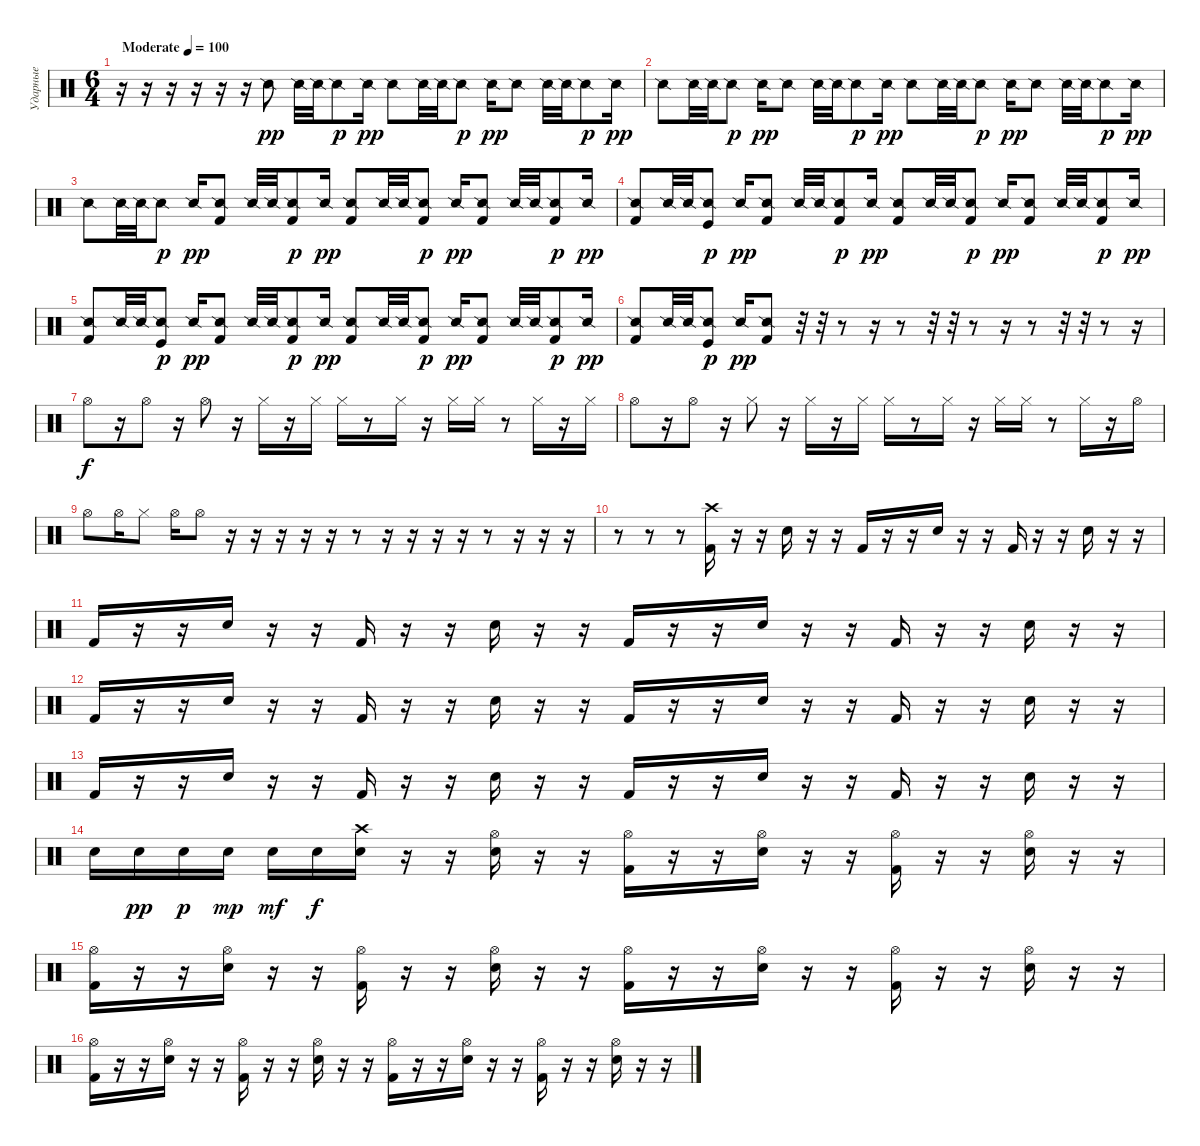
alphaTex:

\track ("Ударные" "Ударные") {instrument percussion}
\staff {score}
\articulation defaults
\ts (6 4)
\tempo (100 "Moderate")
\clef neutral
\ks c
r.16{dy pp} r.16 r.16 r.16 r.16 r.16 "Snare (side stick) 2".8 "Snare (side stick) 2".32 "Snare (side stick) 2".32 "Snare (side stick) 2".8{dy p} "Snare (side stick) 2".16{dy pp} "Snare (side stick) 2".8 "Snare (side stick) 2".32 "Snare (side stick) 2".32 "Snare (side stick) 2".8{dy p} "Snare (side stick) 2".16{dy pp} "Snare (side stick) 2".8 "Snare (side stick) 2".32 "Snare (side stick) 2".32 "Snare (side stick) 2".8{dy p} "Snare (side stick) 2".16{dy pp} |
"Snare (side stick) 2".8 "Snare (side stick) 2".32 "Snare (side stick) 2".32 "Snare (side stick) 2".8{dy p} "Snare (side stick) 2".16{dy pp} "Snare (side stick) 2".8 "Snare (side stick) 2".32 "Snare (side stick) 2".32 "Snare (side stick) 2".8{dy p} "Snare (side stick) 2".16{dy pp} "Snare (side stick) 2".8 "Snare (side stick) 2".32 "Snare (side stick) 2".32 "Snare (side stick) 2".8{dy p} "Snare (side stick) 2".16{dy pp} "Snare (side stick) 2".8 "Snare (side stick) 2".32 "Snare (side stick) 2".32 "Snare (side stick) 2".8{dy p} "Snare (side stick) 2".16{dy pp} |
"Snare (side stick) 2".8 "Snare (side stick) 2".32 "Snare (side stick) 2".32 "Snare (side stick) 2".8{dy p} "Snare (side stick) 2".16{dy pp} ("Snare (side stick) 2" "Kick (hit) 2").8 "Snare (side stick) 2".32 "Snare (side stick) 2".32 ("Snare (side stick) 2" "Kick (hit) 2").8{dy p} "Snare (side stick) 2".16{dy pp} ("Snare (side stick) 2" "Kick (hit) 2").8 "Snare (side stick) 2".32 "Snare (side stick) 2".32 ("Snare (side stick) 2" "Kick (hit) 2").8{dy p} "Snare (side stick) 2".16{dy pp} ("Snare (side stick) 2" "Kick (hit) 2").8 "Snare (side stick) 2".32 "Snare (side stick) 2".32 ("Snare (side stick) 2" "Kick (hit) 2").8{dy p} "Snare (side stick) 2".16{dy pp} |
("Snare (side stick) 2" "Kick (hit) 2").8 "Snare (side stick) 2".32 "Snare (side stick) 2".32 ("Snare (side stick) 2" "Kick (hit)").8{dy p} "Snare (side stick) 2".16{dy pp} ("Snare (side stick) 2" "Kick (hit) 2").8 "Snare (side stick) 2".32 "Snare (side stick) 2".32 ("Snare (side stick) 2" "Kick (hit) 2").8{dy p} "Snare (side stick) 2".16{dy pp} ("Snare (side stick) 2" "Kick (hit) 2").8 "Snare (side stick) 2".32 "Snare (side stick) 2".32 ("Snare (side stick) 2" "Kick (hit) 2").8{dy p} "Snare (side stick) 2".16{dy pp} ("Snare (side stick) 2" "Kick (hit) 2").8 "Snare (side stick) 2".32 "Snare (side stick) 2".32 ("Snare (side stick) 2" "Kick (hit) 2").8{dy p} "Snare (side stick) 2".16{dy pp} |
("Snare (side stick) 2" "Kick (hit) 2").8 "Snare (side stick) 2".32 "Snare (side stick) 2".32 ("Snare (side stick) 2" "Kick (hit)").8{dy p} "Snare (side stick) 2".16{dy pp} ("Snare (side stick) 2" "Kick (hit) 2").8 "Snare (side stick) 2".32 "Snare (side stick) 2".32 ("Snare (side stick) 2" "Kick (hit) 2").8{dy p} "Snare (side stick) 2".16{dy pp} ("Snare (side stick) 2" "Kick (hit) 2").8 "Snare (side stick) 2".32 "Snare (side stick) 2".32 ("Snare (side stick) 2" "Kick (hit) 2").8{dy p} "Snare (side stick) 2".16{dy pp} ("Snare (side stick) 2" "Kick (hit) 2").8 "Snare (side stick) 2".32 "Snare (side stick) 2".32 ("Snare (side stick) 2" "Kick (hit) 2").8{dy p} "Snare (side stick) 2".16{dy pp} |
("Snare (side stick) 2" "Kick (hit) 2").8 "Snare (side stick) 2".32 "Snare (side stick) 2".32 ("Snare (side stick) 2" "Kick (hit)").8{dy p} "Snare (side stick) 2".16{dy pp} ("Snare (side stick) 2" "Kick (hit) 2").8 r.32 r.32 r.8 r.16 r.8 r.32 r.32 r.8 r.16 r.8 r.32 r.32 r.8 r.16 |
"Hi-Hat (open)".8{dy f} r.16 "Hi-Hat (open)".8 r.16 "Hi-Hat (open)".8 r.16 "Hi-Hat (closed)".16 r.16 "Hi-Hat (closed)".16 "Hi-Hat (closed)".16 r.8 "Hi-Hat (closed)".16 r.16 "Hi-Hat (closed)".16 "Hi-Hat (closed)".16 r.8 "Hi-Hat (closed)".16 r.16 "Hi-Hat (closed)".16 |
"Hi-Hat (open)".8 r.16 "Hi-Hat (open)".8 r.16 "Hi-Hat (closed)".8 r.16 "Hi-Hat (closed)".16 r.16 "Hi-Hat (closed)".16 "Hi-Hat (closed)".16 r.8 "Hi-Hat (closed)".16 r.16 "Hi-Hat (closed)".16 "Hi-Hat (closed)".16 r.8 "Hi-Hat (closed)".16 r.16 "Hi-Hat (open)".16 |
"Hi-Hat (open)".8 "Hi-Hat (open)".16 "Hi-Hat (closed)".8 "Hi-Hat (open)".16 "Hi-Hat (open)".8 r.16 r.16 r.16 r.16 r.16 r.8 r.16 r.16 r.16 r.16 r.8 r.16 r.16 r.16 |
r.8 r.8 r.8 ("Crash high (hit)" "Kick (hit) 2").16 r.16 r.16 "Snare (hit) 2".16 r.16 r.16 "Kick (hit) 2".16 r.16 r.16 "Snare (hit) 2".16 r.16 r.16 "Kick (hit) 2".16 r.16 r.16 "Snare (hit) 2".16 r.16 r.16 |
"Kick (hit) 2".16 r.16 r.16 "Snare (hit) 2".16 r.16 r.16 "Kick (hit) 2".16 r.16 r.16 "Snare (hit) 2".16 r.16 r.16 "Kick (hit) 2".16 r.16 r.16 "Snare (hit) 2".16 r.16 r.16 "Kick (hit) 2".16 r.16 r.16 "Snare (hit) 2".16 r.16 r.16 |
"Kick (hit) 2".16 r.16 r.16 "Snare (hit) 2".16 r.16 r.16 "Kick (hit) 2".16 r.16 r.16 "Snare (hit) 2".16 r.16 r.16 "Kick (hit) 2".16 r.16 r.16 "Snare (hit) 2".16 r.16 r.16 "Kick (hit) 2".16 r.16 r.16 "Snare (hit) 2".16 r.16 r.16 |
"Kick (hit) 2".16 r.16 r.16 "Snare (hit) 2".16 r.16 r.16 "Kick (hit) 2".16 r.16 r.16 "Snare (hit) 2".16 r.16 r.16 "Kick (hit) 2".16 r.16 r.16 "Snare (hit) 2".16 r.16 r.16 "Kick (hit) 2".16 r.16 r.16 "Snare (hit) 2".16 r.16 r.16 |
"Snare (hit) 2".16 "Snare (hit) 2".16{dy pp} "Snare (hit) 2".16{dy p} "Snare (hit) 2".16{dy mp} "Snare (hit) 2".16{dy mf} "Snare (hit) 2".16{dy f} ("Crash high (hit)" "Snare (hit) 2").16 r.16 r.16 ("Hi-Hat (open)" "Snare (hit) 2").16 r.16 r.16 ("Hi-Hat (open)" "Kick (hit) 2").16 r.16 r.16 ("Hi-Hat (open)" "Snare (hit) 2").16 r.16 r.16 ("Hi-Hat (open)" "Kick (hit) 2").16 r.16 r.16 ("Hi-Hat (open)" "Snare (hit) 2").16 r.16 r.16 |
("Hi-Hat (open)" "Kick (hit) 2").16 r.16 r.16 ("Hi-Hat (open)" "Snare (hit) 2").16 r.16 r.16 ("Hi-Hat (open)" "Kick (hit) 2").16 r.16 r.16 ("Hi-Hat (open)" "Snare (hit) 2").16 r.16 r.16 ("Hi-Hat (open)" "Kick (hit) 2").16 r.16 r.16 ("Hi-Hat (open)" "Snare (hit) 2").16 r.16 r.16 ("Hi-Hat (open)" "Kick (hit) 2").16 r.16 r.16 ("Hi-Hat (open)" "Snare (hit) 2").16 r.16 r.16 |
("Hi-Hat (open)" "Kick (hit) 2").16 r.16 r.16 ("Hi-Hat (open)" "Snare (hit) 2").16 r.16 r.16 ("Hi-Hat (open)" "Kick (hit) 2").16 r.16 r.16 ("Hi-Hat (open)" "Snare (hit) 2").16 r.16 r.16 ("Hi-Hat (open)" "Kick (hit) 2").16 r.16 r.16 ("Hi-Hat (open)" "Snare (hit) 2").16 r.16 r.16 ("Hi-Hat (open)" "Kick (hit) 2").16 r.16 r.16 ("Hi-Hat (open)" "Snare (hit) 2").16 r.16 r.16
